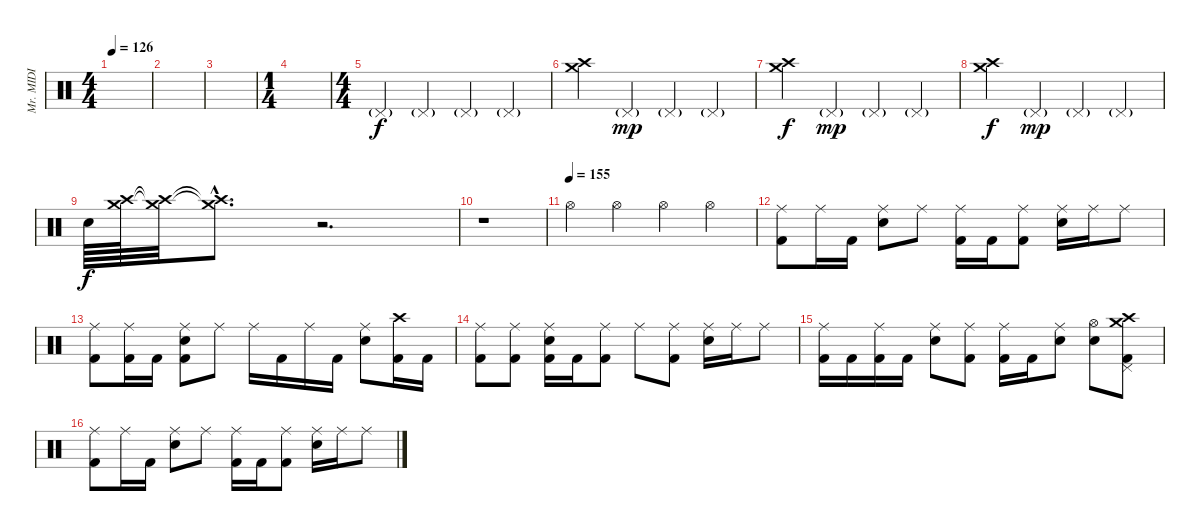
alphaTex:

\track ("Mr. MIDI" "Mr. MIDI") {instrument percussion}
\staff {score}
\articulation defaults
\ts (4 4)
\tempo 126
\clef neutral
\ks c
|
|
|
\ts (1 4)
|
\ts (4 4)
"Pedal Hi-Hat (hit)"{g}.4 "Pedal Hi-Hat (hit)"{g}.4 "Pedal Hi-Hat (hit)"{g}.4 "Pedal Hi-Hat (hit)"{g}.4 |
("Crash high (hit)" "Crash medium (hit)").4{dy f} "Pedal Hi-Hat (hit)"{g}.4{dy mp} "Pedal Hi-Hat (hit)"{g}.4 "Pedal Hi-Hat (hit)"{g}.4 |
("Crash high (hit)" "Crash medium (hit)").4{dy f} "Pedal Hi-Hat (hit)"{g}.4{dy mp} "Pedal Hi-Hat (hit)"{g}.4 "Pedal Hi-Hat (hit)"{g}.4 |
("Crash high (hit)" "Crash medium (hit)").4{dy f} "Pedal Hi-Hat (hit)"{g}.4{dy mp} "Pedal Hi-Hat (hit)"{g}.4 "Pedal Hi-Hat (hit)"{g}.4 |
"Snare (hit) 2".64{dy f} ("Crash high (hit)" "Crash medium (hit)").64 ("Crash high (hit)"{t} "Crash medium (hit)"{t}).32 ("Crash high (hit)"{hac t} "Crash medium (hit)"{hac t}).8{d} r.2{d} |
r.1 |
\tempo (155)
"Hi-Hat (open)".4 "Hi-Hat (open)".4 "Hi-Hat (open)".4 "Hi-Hat (open)".4 |
("Ride (middle)" "Kick (hit) 2").8{volume 16} "Ride (middle)".16 "Kick (hit) 2".16 ("Ride (middle)" "Snare (hit) 2").8 "Ride (middle)".8 ("Ride (middle)" "Kick (hit) 2").16 "Kick (hit) 2".16 ("Ride (middle)" "Kick (hit) 2").8 ("Ride (middle)" "Snare (hit) 2").16 "Ride (middle)".16 "Ride (middle)".8 |
("Ride (middle)" "Kick (hit) 2").8 ("Ride (middle)" "Kick (hit) 2").16 "Kick (hit) 2".16 ("Ride (middle)" "Snare (hit) 2" "Kick (hit) 2").8 "Ride (middle)".8 "Ride (middle)".16 "Kick (hit) 2".16 "Ride (middle)".16 "Kick (hit) 2".16 ("Ride (middle)" "Snare (hit) 2").8 ("Crash high (hit)" "Kick (hit) 2").16 "Kick (hit) 2".16 |
("Ride (middle)" "Kick (hit) 2").8 ("Ride (middle)" "Kick (hit) 2").8 ("Ride (middle)" "Snare (hit) 2" "Kick (hit) 2").16 "Kick (hit) 2".16 ("Ride (middle)" "Kick (hit) 2").8 "Ride (middle)".8 ("Ride (middle)" "Kick (hit) 2").8 ("Ride (middle)" "Snare (hit) 2").16 "Ride (middle)".16 "Ride (middle)".8 |
("Ride (middle)" "Kick (hit) 2").16 "Kick (hit) 2".16 ("Ride (middle)" "Kick (hit) 2").16 "Kick (hit) 2".16 ("Ride (middle)" "Snare (hit) 2").8 ("Ride (middle)" "Kick (hit) 2").8 ("Ride (middle)" "Kick (hit) 2").16 "Kick (hit) 2".16 ("Ride (middle)" "Snare (hit) 2").8 ("Hi-Hat (open)" "Snare (hit) 2").8 ("Crash high (hit)" "Crash medium (hit)" "Pedal Hi-Hat (hit)" "Kick (hit) 2").8 |
("Ride (middle)" "Kick (hit) 2").8 "Ride (middle)".16 "Kick (hit) 2".16 ("Ride (middle)" "Snare (hit) 2").8 "Ride (middle)".8 ("Ride (middle)" "Kick (hit) 2").16 "Kick (hit) 2".16 ("Ride (middle)" "Kick (hit) 2").8 ("Ride (middle)" "Snare (hit) 2").16 "Ride (middle)".16 "Ride (middle)".8
